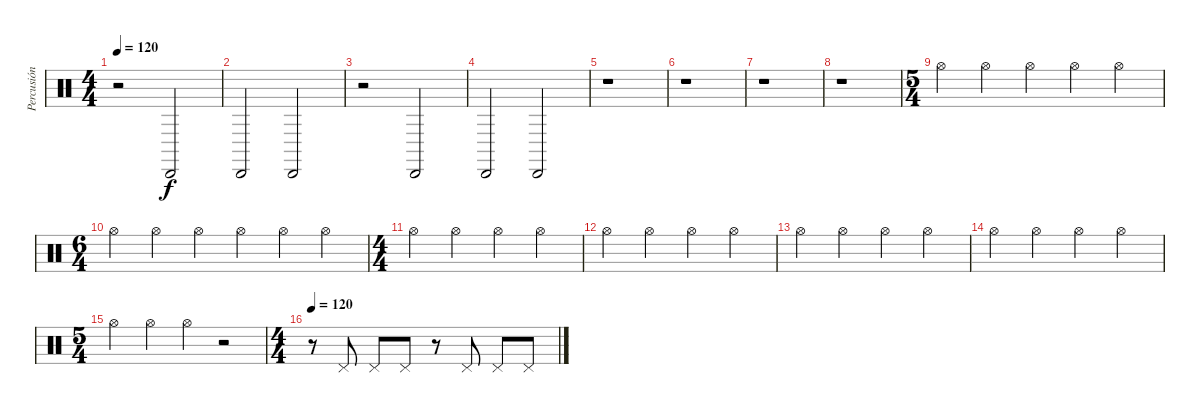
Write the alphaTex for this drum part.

\track ("Percusión" "Percusión") {instrument percussion}
\staff {score}
\articulation defaults
\ts (4 4)
\tempo 120
\clef neutral
\ks c
r.2{dy f} "Cabasa (hit)".2 |
"Cabasa (hit)".2 "Cabasa (hit)".2 |
r.2 "Cabasa (hit)".2 |
"Cabasa (hit)".2 "Cabasa (hit)".2 |
r.1 |
r.1 |
r.1 |
r.1 |
\ts (5 4)
"Hi-Hat (open)".4 "Hi-Hat (open)".4 "Hi-Hat (open)".4 "Hi-Hat (open)".4 "Hi-Hat (open)".4 |
\ts (6 4)
"Hi-Hat (open)".4 "Hi-Hat (open)".4 "Hi-Hat (open)".4 "Hi-Hat (open)".4 "Hi-Hat (open)".4 "Hi-Hat (open)".4 |
\ts (4 4)
"Hi-Hat (open)".4 "Hi-Hat (open)".4 "Hi-Hat (open)".4 "Hi-Hat (open)".4 |
"Hi-Hat (open)".4 "Hi-Hat (open)".4 "Hi-Hat (open)".4 "Hi-Hat (open)".4 |
"Hi-Hat (open)".4 "Hi-Hat (open)".4 "Hi-Hat (open)".4 "Hi-Hat (open)".4 |
"Hi-Hat (open)".4 "Hi-Hat (open)".4 "Hi-Hat (open)".4 "Hi-Hat (open)".4 |
\ts (5 4)
"Hi-Hat (open)".4 "Hi-Hat (open)".4 "Hi-Hat (open)".4 r.2 |
\ts (4 4)
\tempo 63
\tempo 120
r.8 "Pedal Hi-Hat (hit)".8 "Pedal Hi-Hat (hit)".8 "Pedal Hi-Hat (hit)".8 r.8 "Pedal Hi-Hat (hit)".8 "Pedal Hi-Hat (hit)".8 "Pedal Hi-Hat (hit)".8
